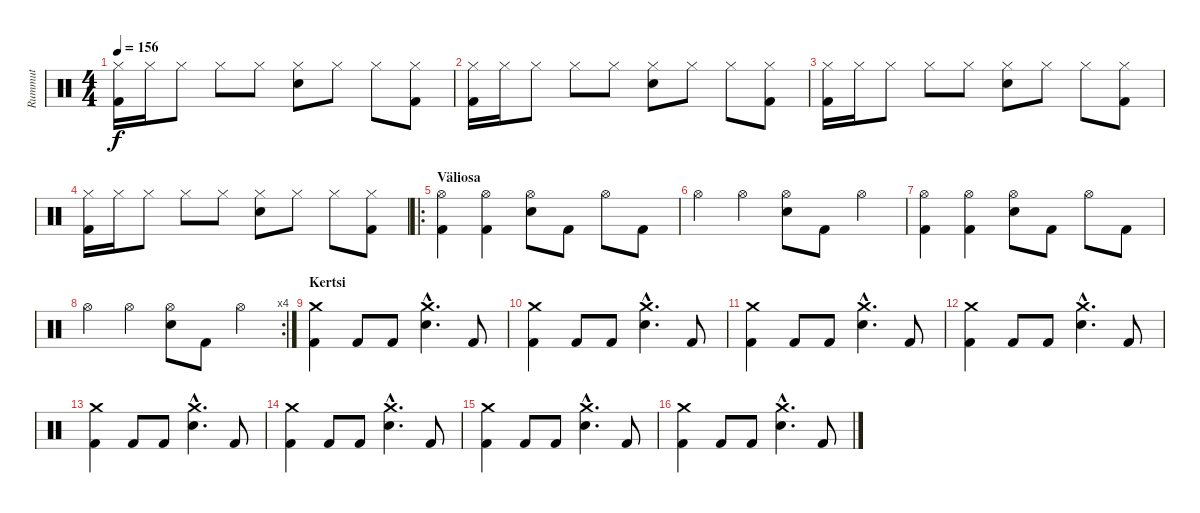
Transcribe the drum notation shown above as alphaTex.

\track ("Rummut" "Rummut") {instrument percussion}
\staff {score}
\articulation defaults
\ts (4 4)
\tempo 156
\clef neutral
\ks c
("Kick (hit) 2" "Hi-Hat (closed)").16{dy f} "Hi-Hat (closed)".16 "Hi-Hat (closed)".8 "Hi-Hat (closed)".8 "Hi-Hat (closed)".8 ("Hi-Hat (closed)" "Snare (hit) 2").8 "Hi-Hat (closed)".8 "Hi-Hat (closed)".8 ("Kick (hit) 2" "Hi-Hat (closed)").8 |
("Kick (hit) 2" "Hi-Hat (closed)").16 "Hi-Hat (closed)".16 "Hi-Hat (closed)".8 "Hi-Hat (closed)".8 "Hi-Hat (closed)".8 ("Hi-Hat (closed)" "Snare (hit) 2").8 "Hi-Hat (closed)".8 "Hi-Hat (closed)".8 ("Kick (hit) 2" "Hi-Hat (closed)").8 |
("Kick (hit) 2" "Hi-Hat (closed)").16 "Hi-Hat (closed)".16 "Hi-Hat (closed)".8 "Hi-Hat (closed)".8 "Hi-Hat (closed)".8 ("Hi-Hat (closed)" "Snare (hit) 2").8 "Hi-Hat (closed)".8 "Hi-Hat (closed)".8 ("Kick (hit) 2" "Hi-Hat (closed)").8 |
("Kick (hit) 2" "Hi-Hat (closed)").16 "Hi-Hat (closed)".16 "Hi-Hat (closed)".8 "Hi-Hat (closed)".8 "Hi-Hat (closed)".8 ("Hi-Hat (closed)" "Snare (hit) 2").8 "Hi-Hat (closed)".8 "Hi-Hat (closed)".8 ("Kick (hit) 2" "Hi-Hat (closed)").8 |
\ro
\section ("" "Väliosa")
("Kick (hit) 2" "Hi-Hat (open)").4 ("Kick (hit) 2" "Hi-Hat (open)").4 ("Hi-Hat (open)" "Snare (hit) 2").8 "Kick (hit) 2".8 "Hi-Hat (open)".8 "Kick (hit) 2".8 |
"Hi-Hat (open)".4 "Hi-Hat (open)".4 ("Hi-Hat (open)" "Snare (hit) 2").8 "Kick (hit) 2".8 "Hi-Hat (open)".4 |
("Kick (hit) 2" "Hi-Hat (open)").4 ("Kick (hit) 2" "Hi-Hat (open)").4 ("Hi-Hat (open)" "Snare (hit) 2").8 "Kick (hit) 2".8 "Hi-Hat (open)".8 "Kick (hit) 2".8 |
\rc 4 "Hi-Hat (open)".4 "Hi-Hat (open)".4
("Hi-Hat (open)" "Snare (hit) 2").8 "Kick (hit) 2".8 "Hi-Hat (open)".4 |
\section ("" "Kertsi")
("Kick (hit) 2" "Crash medium (hit)").4 "Kick (hit) 2".8 "Kick (hit) 2".8 ("Crash medium (hit)"{hac} "Snare (hit) 2"{hac}).4{d} "Kick (hit) 2".8 |
("Kick (hit) 2" "Crash medium (hit)").4 "Kick (hit) 2".8 "Kick (hit) 2".8 ("Crash medium (hit)"{hac} "Snare (hit) 2"{hac}).4{d} "Kick (hit) 2".8 |
("Kick (hit) 2" "Crash medium (hit)").4 "Kick (hit) 2".8 "Kick (hit) 2".8 ("Crash medium (hit)"{hac} "Snare (hit) 2"{hac}).4{d} "Kick (hit) 2".8 |
("Kick (hit) 2" "Crash medium (hit)").4 "Kick (hit) 2".8 "Kick (hit) 2".8 ("Crash medium (hit)"{hac} "Snare (hit) 2"{hac}).4{d} "Kick (hit) 2".8 |
("Kick (hit) 2" "Crash medium (hit)").4 "Kick (hit) 2".8 "Kick (hit) 2".8 ("Crash medium (hit)"{hac} "Snare (hit) 2"{hac}).4{d} "Kick (hit) 2".8 |
("Kick (hit) 2" "Crash medium (hit)").4 "Kick (hit) 2".8 "Kick (hit) 2".8 ("Crash medium (hit)"{hac} "Snare (hit) 2"{hac}).4{d} "Kick (hit) 2".8 |
("Kick (hit) 2" "Crash medium (hit)").4 "Kick (hit) 2".8 "Kick (hit) 2".8 ("Crash medium (hit)"{hac} "Snare (hit) 2"{hac}).4{d} "Kick (hit) 2".8 |
("Kick (hit) 2" "Crash medium (hit)").4 "Kick (hit) 2".8 "Kick (hit) 2".8 ("Crash medium (hit)"{hac} "Snare (hit) 2"{hac}).4{d} "Kick (hit) 2".8
